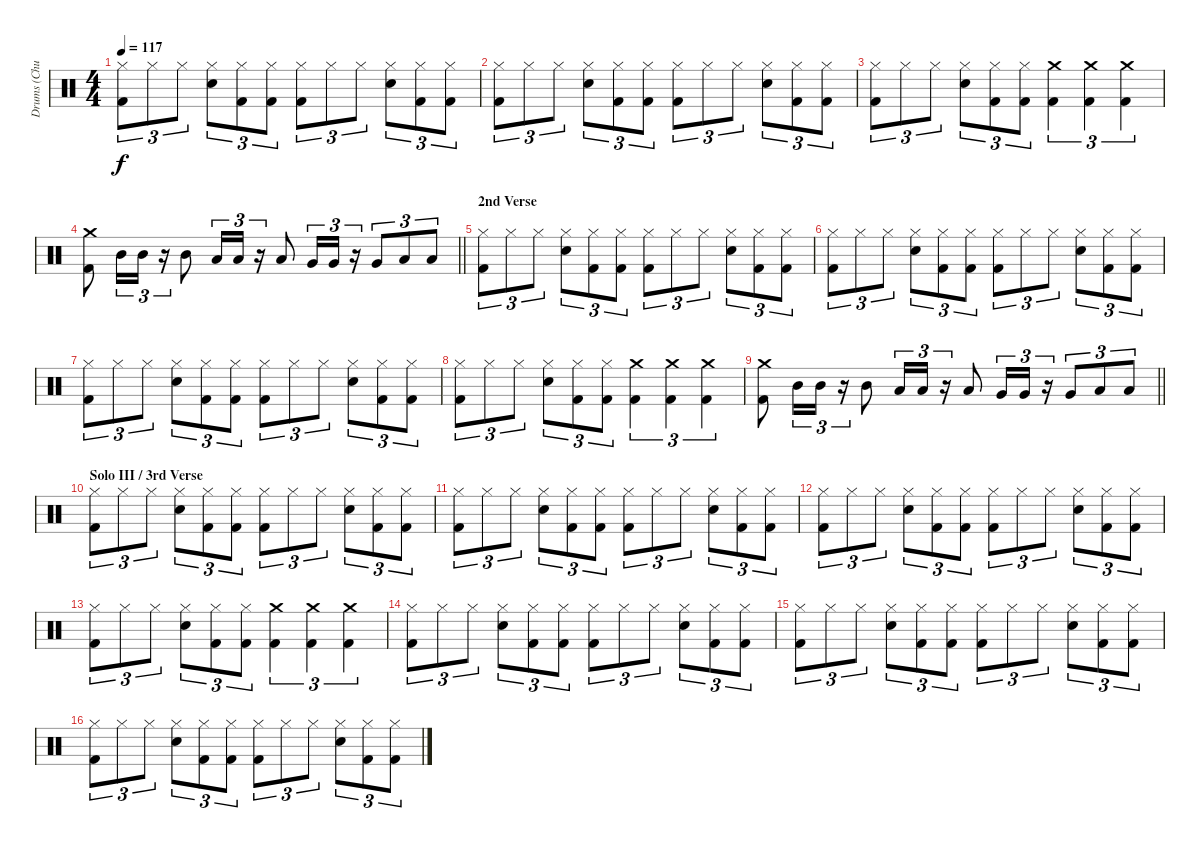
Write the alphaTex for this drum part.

\track ("Drums (Chuck Behler)" "Drums (Chu") {instrument percussion}
\staff {score}
\articulation defaults
\ts (4 4)
\tempo 117
\clef neutral
\ks c
("Hi-Hat (closed)" "Kick (hit) 2").8{tu (3 2) dy f} "Hi-Hat (closed)".8{tu (3 2)} "Hi-Hat (closed)".8{tu (3 2)} ("Hi-Hat (closed)" "Snare (hit) 2").8{tu (3 2)} ("Hi-Hat (closed)" "Kick (hit) 2").8{tu (3 2)} ("Hi-Hat (closed)" "Kick (hit) 2").8{tu (3 2)} ("Hi-Hat (closed)" "Kick (hit) 2").8{tu (3 2)} "Hi-Hat (closed)".8{tu (3 2)} "Hi-Hat (closed)".8{tu (3 2)} ("Hi-Hat (closed)" "Snare (hit) 2").8{tu (3 2)} ("Hi-Hat (closed)" "Kick (hit) 2").8{tu (3 2)} ("Hi-Hat (closed)" "Kick (hit) 2").8{tu (3 2)} |
("Hi-Hat (closed)" "Kick (hit) 2").8{tu (3 2)} "Hi-Hat (closed)".8{tu (3 2)} "Hi-Hat (closed)".8{tu (3 2)} ("Hi-Hat (closed)" "Snare (hit) 2").8{tu (3 2)} ("Hi-Hat (closed)" "Kick (hit) 2").8{tu (3 2)} ("Hi-Hat (closed)" "Kick (hit) 2").8{tu (3 2)} ("Hi-Hat (closed)" "Kick (hit) 2").8{tu (3 2)} "Hi-Hat (closed)".8{tu (3 2)} "Hi-Hat (closed)".8{tu (3 2)} ("Hi-Hat (closed)" "Snare (hit) 2").8{tu (3 2)} ("Hi-Hat (closed)" "Kick (hit) 2").8{tu (3 2)} ("Hi-Hat (closed)" "Kick (hit) 2").8{tu (3 2)} |
("Hi-Hat (closed)" "Kick (hit) 2").8{tu (3 2)} "Hi-Hat (closed)".8{tu (3 2)} "Hi-Hat (closed)".8{tu (3 2)} ("Hi-Hat (closed)" "Snare (hit) 2").8{tu (3 2)} ("Hi-Hat (closed)" "Kick (hit) 2").8{tu (3 2)} ("Hi-Hat (closed)" "Kick (hit) 2").8{tu (3 2)} ("Crash medium (hit)" "Kick (hit) 2").4{tu (3 2)} ("Crash medium (hit)" "Kick (hit) 2").4{tu (3 2)} ("Crash medium (hit)" "Kick (hit) 2").4{tu (3 2)} |
\barLineRight lightlight
("Crash medium (hit)" "Kick (hit) 2").8 "Mid Tom (hit)".16{tu (3 2)} "Mid Tom (hit)".16{tu (3 2)} r.16{tu (3 2)} "Mid Tom (hit)".8 "Low Tom (hit)".16{tu (3 2)} "Low Tom (hit)".16{tu (3 2)} r.16{tu (3 2)} "Low Tom (hit)".8 "Very Low Tom (hit)".16{tu (3 2)} "Very Low Tom (hit)".16{tu (3 2)} r.16{tu (3 2)} "Very Low Tom (hit)".8{tu (3 2)} "Low Floor Tom (hit)".8{tu (3 2)} "Low Floor Tom (hit)".8{tu (3 2)} |
\section ("" "2nd Verse")
("Hi-Hat (closed)" "Kick (hit) 2").8{tu (3 2)} "Hi-Hat (closed)".8{tu (3 2)} "Hi-Hat (closed)".8{tu (3 2)} ("Hi-Hat (closed)" "Snare (hit) 2").8{tu (3 2)} ("Hi-Hat (closed)" "Kick (hit) 2").8{tu (3 2)} ("Hi-Hat (closed)" "Kick (hit) 2").8{tu (3 2)} ("Hi-Hat (closed)" "Kick (hit) 2").8{tu (3 2)} "Hi-Hat (closed)".8{tu (3 2)} "Hi-Hat (closed)".8{tu (3 2)} ("Hi-Hat (closed)" "Snare (hit) 2").8{tu (3 2)} ("Hi-Hat (closed)" "Kick (hit) 2").8{tu (3 2)} ("Hi-Hat (closed)" "Kick (hit) 2").8{tu (3 2)} |
("Hi-Hat (closed)" "Kick (hit) 2").8{tu (3 2)} "Hi-Hat (closed)".8{tu (3 2)} "Hi-Hat (closed)".8{tu (3 2)} ("Hi-Hat (closed)" "Snare (hit) 2").8{tu (3 2)} ("Hi-Hat (closed)" "Kick (hit) 2").8{tu (3 2)} ("Hi-Hat (closed)" "Kick (hit) 2").8{tu (3 2)} ("Hi-Hat (closed)" "Kick (hit) 2").8{tu (3 2)} "Hi-Hat (closed)".8{tu (3 2)} "Hi-Hat (closed)".8{tu (3 2)} ("Hi-Hat (closed)" "Snare (hit) 2").8{tu (3 2)} ("Hi-Hat (closed)" "Kick (hit) 2").8{tu (3 2)} ("Hi-Hat (closed)" "Kick (hit) 2").8{tu (3 2)} |
("Hi-Hat (closed)" "Kick (hit) 2").8{tu (3 2)} "Hi-Hat (closed)".8{tu (3 2)} "Hi-Hat (closed)".8{tu (3 2)} ("Hi-Hat (closed)" "Snare (hit) 2").8{tu (3 2)} ("Hi-Hat (closed)" "Kick (hit) 2").8{tu (3 2)} ("Hi-Hat (closed)" "Kick (hit) 2").8{tu (3 2)} ("Hi-Hat (closed)" "Kick (hit) 2").8{tu (3 2)} "Hi-Hat (closed)".8{tu (3 2)} "Hi-Hat (closed)".8{tu (3 2)} ("Hi-Hat (closed)" "Snare (hit) 2").8{tu (3 2)} ("Hi-Hat (closed)" "Kick (hit) 2").8{tu (3 2)} ("Hi-Hat (closed)" "Kick (hit) 2").8{tu (3 2)} |
("Hi-Hat (closed)" "Kick (hit) 2").8{tu (3 2)} "Hi-Hat (closed)".8{tu (3 2)} "Hi-Hat (closed)".8{tu (3 2)} ("Hi-Hat (closed)" "Snare (hit) 2").8{tu (3 2)} ("Hi-Hat (closed)" "Kick (hit) 2").8{tu (3 2)} ("Hi-Hat (closed)" "Kick (hit) 2").8{tu (3 2)} ("Crash medium (hit)" "Kick (hit) 2").4{tu (3 2)} ("Crash medium (hit)" "Kick (hit) 2").4{tu (3 2)} ("Crash medium (hit)" "Kick (hit) 2").4{tu (3 2)} |
\barLineRight lightlight
("Crash medium (hit)" "Kick (hit) 2").8 "Mid Tom (hit)".16{tu (3 2)} "Mid Tom (hit)".16{tu (3 2)} r.16{tu (3 2)} "Mid Tom (hit)".8 "Low Tom (hit)".16{tu (3 2)} "Low Tom (hit)".16{tu (3 2)} r.16{tu (3 2)} "Low Tom (hit)".8 "Very Low Tom (hit)".16{tu (3 2)} "Very Low Tom (hit)".16{tu (3 2)} r.16{tu (3 2)} "Very Low Tom (hit)".8{tu (3 2)} "Low Floor Tom (hit)".8{tu (3 2)} "Low Floor Tom (hit)".8{tu (3 2)} |
\section ("" "Solo III / 3rd Verse")
("Hi-Hat (closed)" "Kick (hit) 2").8{tu (3 2)} "Hi-Hat (closed)".8{tu (3 2)} "Hi-Hat (closed)".8{tu (3 2)} ("Hi-Hat (closed)" "Snare (hit) 2").8{tu (3 2)} ("Hi-Hat (closed)" "Kick (hit) 2").8{tu (3 2)} ("Hi-Hat (closed)" "Kick (hit) 2").8{tu (3 2)} ("Hi-Hat (closed)" "Kick (hit) 2").8{tu (3 2)} "Hi-Hat (closed)".8{tu (3 2)} "Hi-Hat (closed)".8{tu (3 2)} ("Hi-Hat (closed)" "Snare (hit) 2").8{tu (3 2)} ("Hi-Hat (closed)" "Kick (hit) 2").8{tu (3 2)} ("Hi-Hat (closed)" "Kick (hit) 2").8{tu (3 2)} |
("Hi-Hat (closed)" "Kick (hit) 2").8{tu (3 2)} "Hi-Hat (closed)".8{tu (3 2)} "Hi-Hat (closed)".8{tu (3 2)} ("Hi-Hat (closed)" "Snare (hit) 2").8{tu (3 2)} ("Hi-Hat (closed)" "Kick (hit) 2").8{tu (3 2)} ("Hi-Hat (closed)" "Kick (hit) 2").8{tu (3 2)} ("Hi-Hat (closed)" "Kick (hit) 2").8{tu (3 2)} "Hi-Hat (closed)".8{tu (3 2)} "Hi-Hat (closed)".8{tu (3 2)} ("Hi-Hat (closed)" "Snare (hit) 2").8{tu (3 2)} ("Hi-Hat (closed)" "Kick (hit) 2").8{tu (3 2)} ("Hi-Hat (closed)" "Kick (hit) 2").8{tu (3 2)} |
("Hi-Hat (closed)" "Kick (hit) 2").8{tu (3 2)} "Hi-Hat (closed)".8{tu (3 2)} "Hi-Hat (closed)".8{tu (3 2)} ("Hi-Hat (closed)" "Snare (hit) 2").8{tu (3 2)} ("Hi-Hat (closed)" "Kick (hit) 2").8{tu (3 2)} ("Hi-Hat (closed)" "Kick (hit) 2").8{tu (3 2)} ("Hi-Hat (closed)" "Kick (hit) 2").8{tu (3 2)} "Hi-Hat (closed)".8{tu (3 2)} "Hi-Hat (closed)".8{tu (3 2)} ("Hi-Hat (closed)" "Snare (hit) 2").8{tu (3 2)} ("Hi-Hat (closed)" "Kick (hit) 2").8{tu (3 2)} ("Hi-Hat (closed)" "Kick (hit) 2").8{tu (3 2)} |
("Hi-Hat (closed)" "Kick (hit) 2").8{tu (3 2)} "Hi-Hat (closed)".8{tu (3 2)} "Hi-Hat (closed)".8{tu (3 2)} ("Hi-Hat (closed)" "Snare (hit) 2").8{tu (3 2)} ("Hi-Hat (closed)" "Kick (hit) 2").8{tu (3 2)} ("Hi-Hat (closed)" "Kick (hit) 2").8{tu (3 2)} ("Crash medium (hit)" "Kick (hit) 2").4{tu (3 2)} ("Crash medium (hit)" "Kick (hit) 2").4{tu (3 2)} ("Crash medium (hit)" "Kick (hit) 2").4{tu (3 2)} |
("Hi-Hat (closed)" "Kick (hit) 2").8{tu (3 2)} "Hi-Hat (closed)".8{tu (3 2)} "Hi-Hat (closed)".8{tu (3 2)} ("Hi-Hat (closed)" "Snare (hit) 2").8{tu (3 2)} ("Hi-Hat (closed)" "Kick (hit) 2").8{tu (3 2)} ("Hi-Hat (closed)" "Kick (hit) 2").8{tu (3 2)} ("Hi-Hat (closed)" "Kick (hit) 2").8{tu (3 2)} "Hi-Hat (closed)".8{tu (3 2)} "Hi-Hat (closed)".8{tu (3 2)} ("Hi-Hat (closed)" "Snare (hit) 2").8{tu (3 2)} ("Hi-Hat (closed)" "Kick (hit) 2").8{tu (3 2)} ("Hi-Hat (closed)" "Kick (hit) 2").8{tu (3 2)} |
("Hi-Hat (closed)" "Kick (hit) 2").8{tu (3 2)} "Hi-Hat (closed)".8{tu (3 2)} "Hi-Hat (closed)".8{tu (3 2)} ("Hi-Hat (closed)" "Snare (hit) 2").8{tu (3 2)} ("Hi-Hat (closed)" "Kick (hit) 2").8{tu (3 2)} ("Hi-Hat (closed)" "Kick (hit) 2").8{tu (3 2)} ("Hi-Hat (closed)" "Kick (hit) 2").8{tu (3 2)} "Hi-Hat (closed)".8{tu (3 2)} "Hi-Hat (closed)".8{tu (3 2)} ("Hi-Hat (closed)" "Snare (hit) 2").8{tu (3 2)} ("Hi-Hat (closed)" "Kick (hit) 2").8{tu (3 2)} ("Hi-Hat (closed)" "Kick (hit) 2").8{tu (3 2)} |
("Hi-Hat (closed)" "Kick (hit) 2").8{tu (3 2)} "Hi-Hat (closed)".8{tu (3 2)} "Hi-Hat (closed)".8{tu (3 2)} ("Hi-Hat (closed)" "Snare (hit) 2").8{tu (3 2)} ("Hi-Hat (closed)" "Kick (hit) 2").8{tu (3 2)} ("Hi-Hat (closed)" "Kick (hit) 2").8{tu (3 2)} ("Hi-Hat (closed)" "Kick (hit) 2").8{tu (3 2)} "Hi-Hat (closed)".8{tu (3 2)} "Hi-Hat (closed)".8{tu (3 2)} ("Hi-Hat (closed)" "Snare (hit) 2").8{tu (3 2)} ("Hi-Hat (closed)" "Kick (hit) 2").8{tu (3 2)} ("Hi-Hat (closed)" "Kick (hit) 2").8{tu (3 2)}
